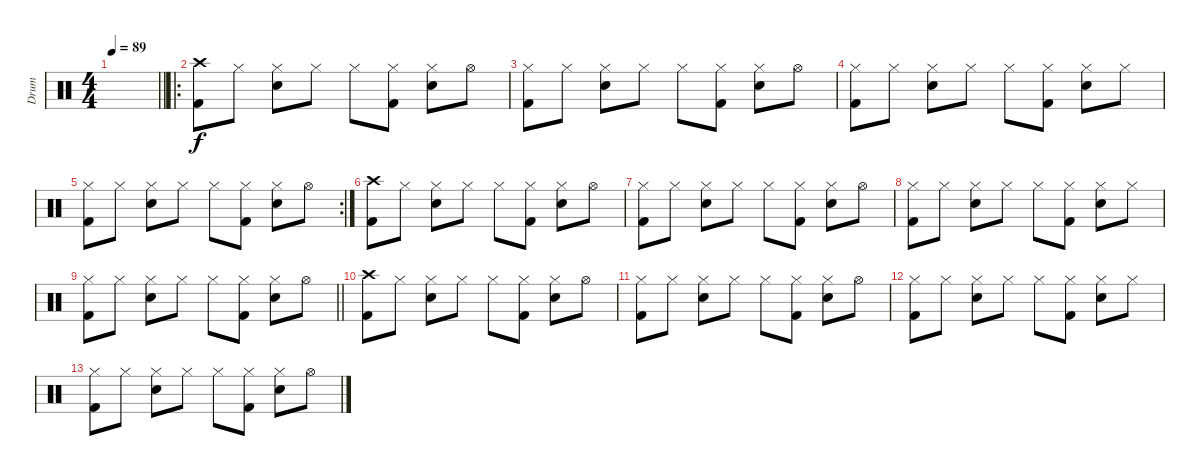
\track ("Drum" "Drum") {instrument percussion}
\staff {score}
\articulation defaults
\ts (4 4)
\tempo 89
\clef neutral
\barLineRight lightlight
\ks c
|
\ro
("Crash high (hit)" "Kick (hit) 2").8 "Hi-Hat (closed)".8 ("Hi-Hat (closed)" "Electric Snare (hit)").8 "Hi-Hat (closed)".8 "Hi-Hat (closed)".8 ("Hi-Hat (closed)" "Kick (hit) 2").8 ("Hi-Hat (closed)" "Electric Snare (hit)").8 "Hi-Hat (open)".8 |
("Hi-Hat (closed)" "Kick (hit) 2").8 "Hi-Hat (closed)".8 ("Hi-Hat (closed)" "Electric Snare (hit)").8 "Hi-Hat (closed)".8 "Hi-Hat (closed)".8 ("Hi-Hat (closed)" "Kick (hit) 2").8 ("Hi-Hat (closed)" "Electric Snare (hit)").8 "Hi-Hat (open)".8 |
("Hi-Hat (closed)" "Kick (hit) 2").8 "Hi-Hat (closed)".8 ("Hi-Hat (closed)" "Electric Snare (hit)").8 "Hi-Hat (closed)".8 "Hi-Hat (closed)".8 ("Hi-Hat (closed)" "Kick (hit) 2").8 ("Hi-Hat (closed)" "Electric Snare (hit)").8 "Hi-Hat (closed)".8 |
\rc 2
("Hi-Hat (closed)" "Kick (hit) 2").8 "Hi-Hat (closed)".8 ("Hi-Hat (closed)" "Electric Snare (hit)").8 "Hi-Hat (closed)".8 "Hi-Hat (closed)".8 ("Hi-Hat (closed)" "Kick (hit) 2").8 ("Hi-Hat (closed)" "Electric Snare (hit)").8 "Hi-Hat (open)".8 |
("Crash high (hit)" "Kick (hit) 2").8 "Hi-Hat (closed)".8 ("Hi-Hat (closed)" "Electric Snare (hit)").8 "Hi-Hat (closed)".8 "Hi-Hat (closed)".8 ("Hi-Hat (closed)" "Kick (hit) 2").8 ("Hi-Hat (closed)" "Electric Snare (hit)").8 "Hi-Hat (open)".8 |
("Hi-Hat (closed)" "Kick (hit) 2").8 "Hi-Hat (closed)".8 ("Hi-Hat (closed)" "Electric Snare (hit)").8 "Hi-Hat (closed)".8 "Hi-Hat (closed)".8 ("Hi-Hat (closed)" "Kick (hit) 2").8 ("Hi-Hat (closed)" "Electric Snare (hit)").8 "Hi-Hat (open)".8 |
("Hi-Hat (closed)" "Kick (hit) 2").8 "Hi-Hat (closed)".8 ("Hi-Hat (closed)" "Electric Snare (hit)").8 "Hi-Hat (closed)".8 "Hi-Hat (closed)".8 ("Hi-Hat (closed)" "Kick (hit) 2").8 ("Hi-Hat (closed)" "Electric Snare (hit)").8 "Hi-Hat (closed)".8 |
\barLineRight lightlight
("Hi-Hat (closed)" "Kick (hit) 2").8 "Hi-Hat (closed)".8 ("Hi-Hat (closed)" "Electric Snare (hit)").8 "Hi-Hat (closed)".8 "Hi-Hat (closed)".8 ("Hi-Hat (closed)" "Kick (hit) 2").8 ("Hi-Hat (closed)" "Electric Snare (hit)").8 "Hi-Hat (open)".8 |
("Crash high (hit)" "Kick (hit) 2").8 "Hi-Hat (closed)".8 ("Hi-Hat (closed)" "Electric Snare (hit)").8 "Hi-Hat (closed)".8 "Hi-Hat (closed)".8 ("Hi-Hat (closed)" "Kick (hit) 2").8 ("Hi-Hat (closed)" "Electric Snare (hit)").8 "Hi-Hat (open)".8 |
("Hi-Hat (closed)" "Kick (hit) 2").8 "Hi-Hat (closed)".8 ("Hi-Hat (closed)" "Electric Snare (hit)").8 "Hi-Hat (closed)".8 "Hi-Hat (closed)".8 ("Hi-Hat (closed)" "Kick (hit) 2").8 ("Hi-Hat (closed)" "Electric Snare (hit)").8 "Hi-Hat (open)".8 |
("Hi-Hat (closed)" "Kick (hit) 2").8 "Hi-Hat (closed)".8 ("Hi-Hat (closed)" "Electric Snare (hit)").8 "Hi-Hat (closed)".8 "Hi-Hat (closed)".8 ("Hi-Hat (closed)" "Kick (hit) 2").8 ("Hi-Hat (closed)" "Electric Snare (hit)").8 "Hi-Hat (closed)".8 |
("Hi-Hat (closed)" "Kick (hit) 2").8 "Hi-Hat (closed)".8 ("Hi-Hat (closed)" "Electric Snare (hit)").8 "Hi-Hat (closed)".8 "Hi-Hat (closed)".8 ("Hi-Hat (closed)" "Kick (hit) 2").8 ("Hi-Hat (closed)" "Electric Snare (hit)").8 "Hi-Hat (open)".8
